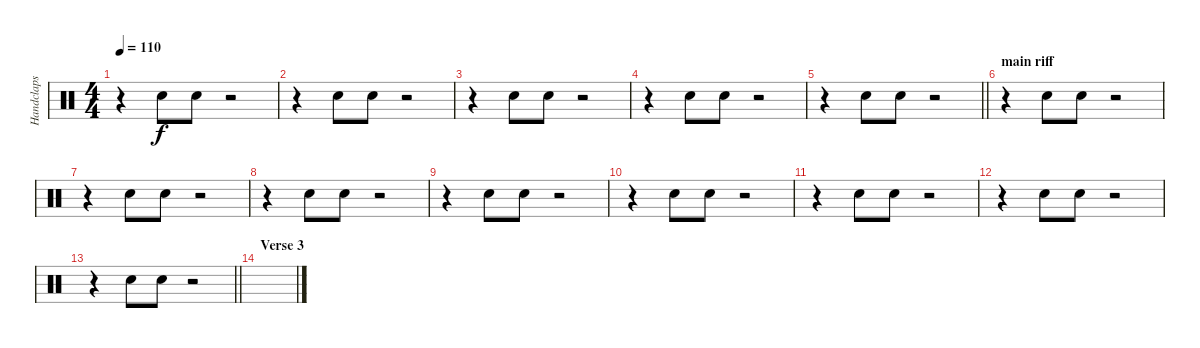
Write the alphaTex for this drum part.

\track ("Handclaps" "Handclaps") {instrument percussion}
\staff {score}
\articulation defaults
\ts (4 4)
\tempo 110
\clef neutral
\ks c
r.4{dy f} "Hand Clap (hit)".8 "Hand Clap (hit)".8 r.2 |
r.4 "Hand Clap (hit)".8 "Hand Clap (hit)".8 r.2 |
r.4 "Hand Clap (hit)".8 "Hand Clap (hit)".8 r.2 |
r.4 "Hand Clap (hit)".8 "Hand Clap (hit)".8 r.2 |
\barLineRight lightlight
r.4 "Hand Clap (hit)".8 "Hand Clap (hit)".8 r.2 |
\section ("" "main riff")
r.4 "Hand Clap (hit)".8 "Hand Clap (hit)".8 r.2 |
r.4 "Hand Clap (hit)".8 "Hand Clap (hit)".8 r.2 |
r.4 "Hand Clap (hit)".8 "Hand Clap (hit)".8 r.2 |
r.4 "Hand Clap (hit)".8 "Hand Clap (hit)".8 r.2 |
r.4 "Hand Clap (hit)".8 "Hand Clap (hit)".8 r.2 |
r.4 "Hand Clap (hit)".8 "Hand Clap (hit)".8 r.2 |
r.4 "Hand Clap (hit)".8 "Hand Clap (hit)".8 r.2 |
\barLineRight lightlight
r.4 "Hand Clap (hit)".8 "Hand Clap (hit)".8 r.2 |
\section ("" "Verse 3")
